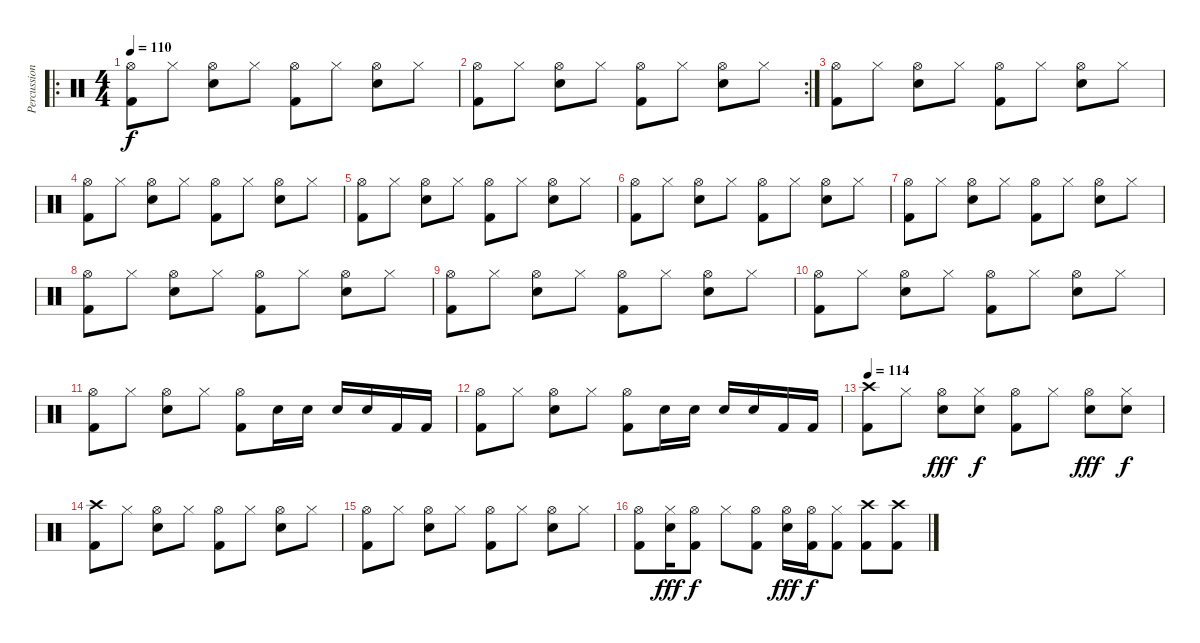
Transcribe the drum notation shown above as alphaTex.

\track ("Percussion" "Percussion") {instrument percussion}
\staff {score}
\articulation defaults
\ro
\ts (4 4)
\tempo 110
\clef neutral
\ks c
("Hi-Hat (open)" "Kick (hit) 2").8{dy f} "Hi-Hat (closed)".8 ("Hi-Hat (open)" "Snare (hit) 2").8 "Hi-Hat (closed)".8 ("Hi-Hat (open)" "Kick (hit) 2").8 "Hi-Hat (closed)".8 ("Hi-Hat (open)" "Snare (hit) 2").8 "Hi-Hat (closed)".8 |
\rc 2
("Hi-Hat (open)" "Kick (hit) 2").8 "Hi-Hat (closed)".8 ("Hi-Hat (open)" "Snare (hit) 2").8 "Hi-Hat (closed)".8 ("Hi-Hat (open)" "Kick (hit) 2").8 "Hi-Hat (closed)".8 ("Hi-Hat (open)" "Snare (hit) 2").8 "Hi-Hat (closed)".8 |
("Hi-Hat (open)" "Kick (hit) 2").8 "Hi-Hat (closed)".8 ("Hi-Hat (open)" "Snare (hit) 2").8 "Hi-Hat (closed)".8 ("Hi-Hat (open)" "Kick (hit) 2").8 "Hi-Hat (closed)".8 ("Hi-Hat (open)" "Snare (hit) 2").8 "Hi-Hat (closed)".8 |
("Hi-Hat (open)" "Kick (hit) 2").8 "Hi-Hat (closed)".8 ("Hi-Hat (open)" "Snare (hit) 2").8 "Hi-Hat (closed)".8 ("Hi-Hat (open)" "Kick (hit) 2").8 "Hi-Hat (closed)".8 ("Hi-Hat (open)" "Snare (hit) 2").8 "Hi-Hat (closed)".8 |
("Hi-Hat (open)" "Kick (hit) 2").8 "Hi-Hat (closed)".8 ("Hi-Hat (open)" "Snare (hit) 2").8 "Hi-Hat (closed)".8 ("Hi-Hat (open)" "Kick (hit) 2").8 "Hi-Hat (closed)".8 ("Hi-Hat (open)" "Snare (hit) 2").8 "Hi-Hat (closed)".8 |
("Hi-Hat (open)" "Kick (hit) 2").8 "Hi-Hat (closed)".8 ("Hi-Hat (open)" "Snare (hit) 2").8 "Hi-Hat (closed)".8 ("Hi-Hat (open)" "Kick (hit) 2").8 "Hi-Hat (closed)".8 ("Hi-Hat (open)" "Snare (hit) 2").8 "Hi-Hat (closed)".8 |
("Hi-Hat (open)" "Kick (hit) 2").8 "Hi-Hat (closed)".8 ("Hi-Hat (open)" "Snare (hit) 2").8 "Hi-Hat (closed)".8 ("Hi-Hat (open)" "Kick (hit) 2").8 "Hi-Hat (closed)".8 ("Hi-Hat (open)" "Snare (hit) 2").8 "Hi-Hat (closed)".8 |
("Hi-Hat (open)" "Kick (hit) 2").8 "Hi-Hat (closed)".8 ("Hi-Hat (open)" "Snare (hit) 2").8 "Hi-Hat (closed)".8 ("Hi-Hat (open)" "Kick (hit) 2").8 "Hi-Hat (closed)".8 ("Hi-Hat (open)" "Snare (hit) 2").8 "Hi-Hat (closed)".8 |
("Hi-Hat (open)" "Kick (hit) 2").8 "Hi-Hat (closed)".8 ("Hi-Hat (open)" "Snare (hit) 2").8 "Hi-Hat (closed)".8 ("Hi-Hat (open)" "Kick (hit) 2").8 "Hi-Hat (closed)".8 ("Hi-Hat (open)" "Snare (hit) 2").8 "Hi-Hat (closed)".8 |
("Hi-Hat (open)" "Kick (hit) 2").8 "Hi-Hat (closed)".8 ("Hi-Hat (open)" "Snare (hit) 2").8 "Hi-Hat (closed)".8 ("Hi-Hat (open)" "Kick (hit) 2").8 "Hi-Hat (closed)".8 ("Hi-Hat (open)" "Snare (hit) 2").8 "Hi-Hat (closed)".8 |
("Hi-Hat (open)" "Kick (hit) 2").8 "Hi-Hat (closed)".8 ("Hi-Hat (open)" "Snare (hit) 2").8 "Hi-Hat (closed)".8 ("Hi-Hat (open)" "Kick (hit) 2").8 "Snare (hit) 2".16 "Snare (hit) 2".16 "Snare (hit) 2".16 "Snare (hit) 2".16 "Kick (hit) 2".16 "Kick (hit) 2".16 |
("Hi-Hat (open)" "Kick (hit) 2").8 "Hi-Hat (closed)".8 ("Hi-Hat (open)" "Snare (hit) 2").8 "Hi-Hat (closed)".8 ("Hi-Hat (open)" "Kick (hit) 2").8 "Snare (hit) 2".16 "Snare (hit) 2".16 "Snare (hit) 2".16 "Snare (hit) 2".16 "Kick (hit) 2".16 "Kick (hit) 2".16 |
\tempo 116
\tempo 114
("Crash high (hit)" "Kick (hit) 2").8 "Hi-Hat (closed)".8 ("Hi-Hat (open)" "Snare (hit) 2").8{dy fff} ("Hi-Hat (closed)" "Snare (hit) 2").8{dy f} ("Hi-Hat (open)" "Kick (hit) 2").8 "Hi-Hat (closed)".8 ("Hi-Hat (open)" "Snare (hit) 2").8{dy fff} ("Hi-Hat (closed)" "Snare (hit) 2").8{dy f} |
("Crash high (hit)" "Kick (hit) 2").8 "Hi-Hat (closed)".8 ("Hi-Hat (open)" "Snare (hit) 2").8 "Hi-Hat (closed)".8 ("Hi-Hat (open)" "Kick (hit) 2").8 "Hi-Hat (closed)".8 ("Hi-Hat (open)" "Snare (hit) 2").8 "Hi-Hat (closed)".8 |
("Hi-Hat (open)" "Kick (hit) 2").8 "Hi-Hat (closed)".8 ("Hi-Hat (open)" "Snare (hit) 2").8 "Hi-Hat (closed)".8 ("Hi-Hat (open)" "Kick (hit) 2").8 "Hi-Hat (closed)".8 ("Hi-Hat (open)" "Snare (hit) 2").8 "Hi-Hat (closed)".8 |
("Hi-Hat (open)" "Kick (hit) 2").8 ("Hi-Hat (closed)" "Snare (hit) 2").16{dy fff} ("Hi-Hat (open)" "Kick (hit) 2").8{dy f} "Hi-Hat (closed)".8 ("Hi-Hat (open)" "Kick (hit) 2").8 ("Hi-Hat (open)" "Snare (hit) 2").16{dy fff} ("Hi-Hat (open)" "Kick (hit) 2").16{dy f} ("Hi-Hat (closed)" "Kick (hit) 2").8 ("Crash high (hit)" "Kick (hit) 2").8 ("Crash high (hit)" "Kick (hit) 2").8
